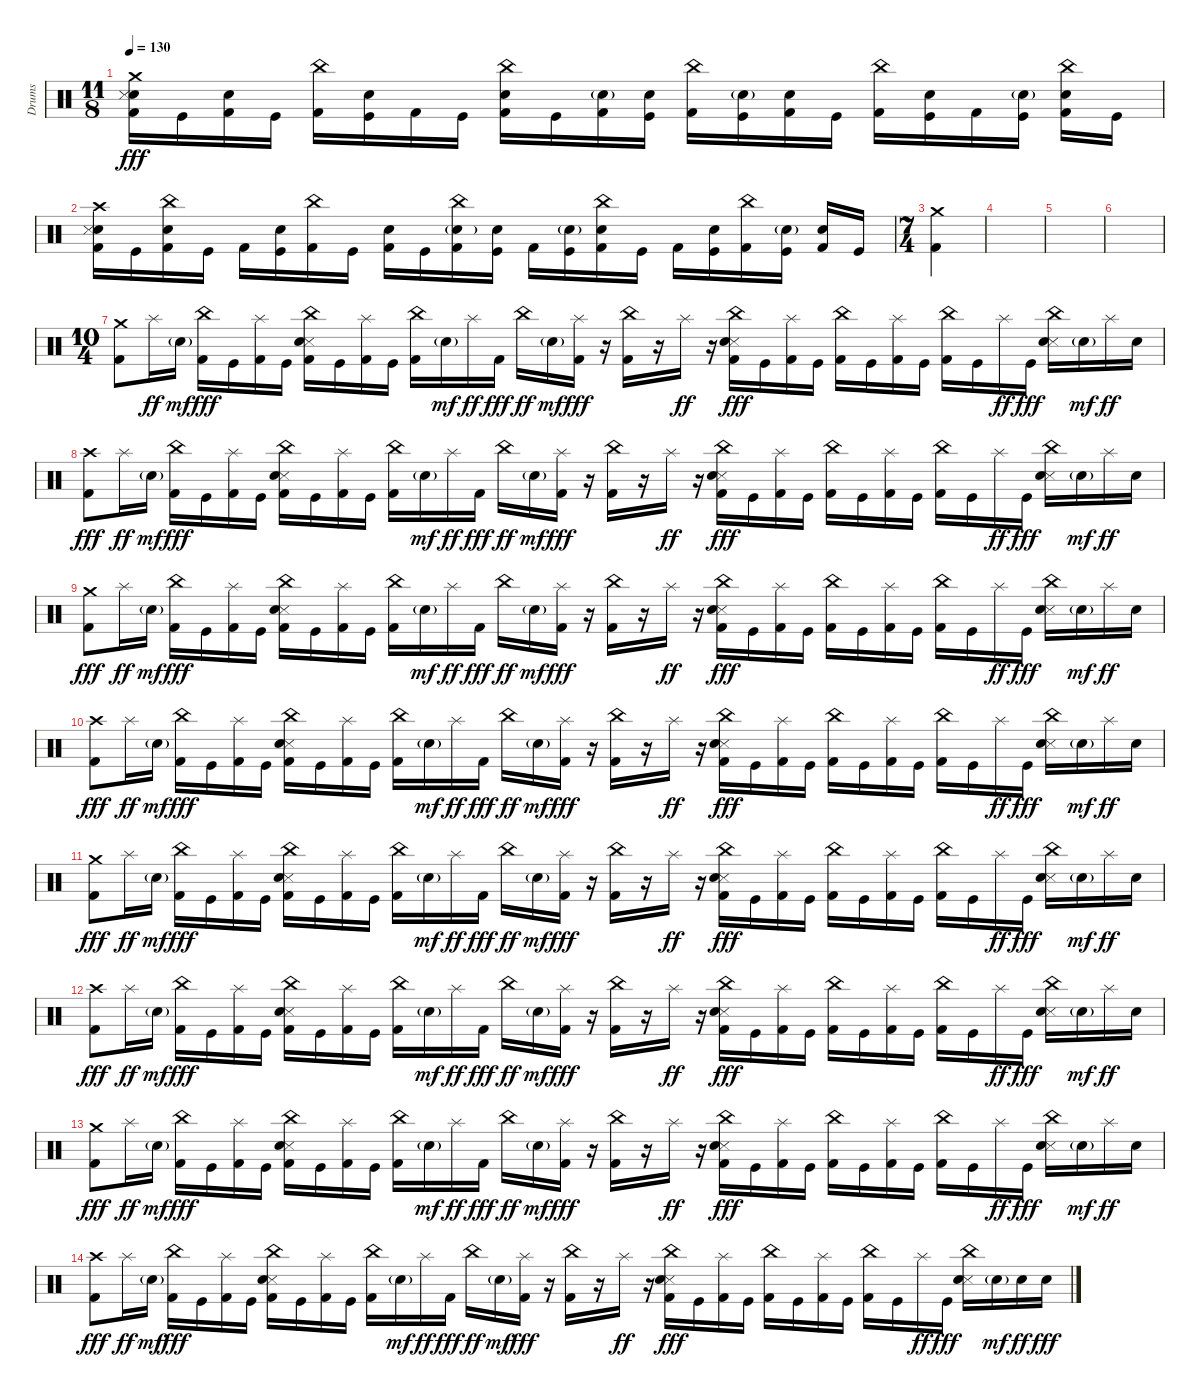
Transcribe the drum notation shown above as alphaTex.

\track ("Drums" "Drums") {instrument percussion}
\staff {score}
\articulation defaults
\ts (11 8)
\tempo 130
\clef neutral
\ks c
("Crash medium (hit)" "Snare (hit) 2" "Snare (side stick) 3" "Kick (hit) 2").16{dy fff} "Kick (hit)".16 ("Snare (hit) 2" "Kick (hit) 2").16 "Kick (hit)".16 ("China (hit)" "Kick (hit) 2").16 ("Snare (hit) 2" "Kick (hit)").16 "Kick (hit) 2".16 "Kick (hit)".16 ("China (hit)" "Snare (hit) 2" "Kick (hit) 2").16 "Kick (hit)".16 ("Snare (hit) 2"{g} "Kick (hit) 2").16 ("Snare (hit) 2" "Kick (hit)").16 ("China (hit)" "Kick (hit) 2").16 ("Snare (hit) 2"{g} "Kick (hit)").16 ("Snare (hit) 2" "Kick (hit) 2").16 "Kick (hit)".16 ("China (hit)" "Kick (hit) 2").16 ("Snare (hit) 2" "Kick (hit)").16 "Kick (hit) 2".16 ("Snare (hit) 2"{g} "Kick (hit)").16 ("China (hit)" "Snare (hit) 2" "Kick (hit) 2").16 "Kick (hit)".16 |
("Crash high (hit)" "Snare (hit) 2" "Snare (side stick) 3" "Kick (hit) 2").16 "Kick (hit)".16 ("China (hit)" "Snare (hit) 2" "Kick (hit) 2").16 "Kick (hit)".16 "Kick (hit) 2".16 ("Snare (hit) 2" "Kick (hit)").16 ("China (hit)" "Kick (hit) 2").16 "Kick (hit)".16 ("Snare (hit) 2" "Kick (hit) 2").16 "Kick (hit)".16 ("China (hit)" "Snare (hit) 2"{g} "Kick (hit) 2").16 ("Snare (hit) 2" "Kick (hit)").16 "Kick (hit) 2".16 ("Snare (hit) 2"{g} "Kick (hit)").16 ("China (hit)" "Snare (hit) 2" "Kick (hit) 2").16 "Kick (hit)".16 "Kick (hit) 2".16 ("Snare (hit) 2" "Kick (hit)").16 ("China (hit)" "Kick (hit) 2").16 ("Snare (hit) 2"{g} "Kick (hit)").16 ("Snare (hit) 2" "Kick (hit) 2").16 "Kick (hit)".16 |
\ts (7 4)
("Crash medium (hit)" "Kick (hit) 2").4 |
|
|
|
\ts (10 4)
("Crash medium (hit)" "Kick (hit) 2").8 "Splash (hit)".16{dy ff} "Snare (hit) 2"{g}.16{dy mf} ("China (hit)" "Kick (hit) 2").16{dy fff} "Kick (hit)".16 ("Splash (hit)" "Kick (hit) 2").16 "Kick (hit)".16 ("China (hit)" "Snare (side stick) 3" "Snare (hit) 2" "Kick (hit) 2").16 "Kick (hit)".16 ("Splash (hit)" "Kick (hit) 2").16 "Kick (hit)".16 ("China (hit)" "Kick (hit) 2").16 "Snare (hit) 2"{g}.16{dy mf} "Splash (hit)".16{dy ff} "Kick (hit) 2".16{dy fff} "China (hit)".16{dy ff} "Snare (hit) 2"{g}.16{dy mf} ("Splash (hit)" "Kick (hit) 2").16{dy fff} r.16 ("China (hit)" "Kick (hit) 2").16 r.16 "Splash (hit)".16{dy ff} r.16 ("China (hit)" "Snare (side stick) 3" "Snare (hit) 2" "Kick (hit) 2").16{dy fff} "Kick (hit)".16 ("Splash (hit)" "Kick (hit) 2").16 "Kick (hit)".16 ("China (hit)" "Kick (hit) 2").16 "Kick (hit)".16 ("Splash (hit)" "Kick (hit) 2").16 "Kick (hit)".16 ("China (hit)" "Kick (hit) 2").16 "Kick (hit)".16 "Splash (hit)".16{dy ff} "Kick (hit)".16{dy fff} ("China (hit)" "Snare (side stick) 3" "Snare (hit) 2").16 "Snare (hit) 2"{g}.16{dy mf} "Splash (hit)".16{dy ff} "Snare (hit) 2".16 |
("Crash high (hit)" "Kick (hit) 2").8{dy fff} "Splash (hit)".16{dy ff} "Snare (hit) 2"{g}.16{dy mf} ("China (hit)" "Kick (hit) 2").16{dy fff} "Kick (hit)".16 ("Splash (hit)" "Kick (hit) 2").16 "Kick (hit)".16 ("China (hit)" "Snare (side stick) 3" "Snare (hit) 2" "Kick (hit) 2").16 "Kick (hit)".16 ("Splash (hit)" "Kick (hit) 2").16 "Kick (hit)".16 ("China (hit)" "Kick (hit) 2").16 "Snare (hit) 2"{g}.16{dy mf} "Splash (hit)".16{dy ff} "Kick (hit) 2".16{dy fff} "China (hit)".16{dy ff} "Snare (hit) 2"{g}.16{dy mf} ("Splash (hit)" "Kick (hit) 2").16{dy fff} r.16 ("China (hit)" "Kick (hit) 2").16 r.16 "Splash (hit)".16{dy ff} r.16 ("China (hit)" "Snare (side stick) 3" "Snare (hit) 2" "Kick (hit) 2").16{dy fff} "Kick (hit)".16 ("Splash (hit)" "Kick (hit) 2").16 "Kick (hit)".16 ("China (hit)" "Kick (hit) 2").16 "Kick (hit)".16 ("Splash (hit)" "Kick (hit) 2").16 "Kick (hit)".16 ("China (hit)" "Kick (hit) 2").16 "Kick (hit)".16 "Splash (hit)".16{dy ff} "Kick (hit)".16{dy fff} ("China (hit)" "Snare (side stick) 3" "Snare (hit) 2").16 "Snare (hit) 2"{g}.16{dy mf} "Splash (hit)".16{dy ff} "Snare (hit) 2".16 |
("Crash medium (hit)" "Kick (hit) 2").8{dy fff} "Splash (hit)".16{dy ff} "Snare (hit) 2"{g}.16{dy mf} ("China (hit)" "Kick (hit) 2").16{dy fff} "Kick (hit)".16 ("Splash (hit)" "Kick (hit) 2").16 "Kick (hit)".16 ("China (hit)" "Snare (side stick) 3" "Snare (hit) 2" "Kick (hit) 2").16 "Kick (hit)".16 ("Splash (hit)" "Kick (hit) 2").16 "Kick (hit)".16 ("China (hit)" "Kick (hit) 2").16 "Snare (hit) 2"{g}.16{dy mf} "Splash (hit)".16{dy ff} "Kick (hit) 2".16{dy fff} "China (hit)".16{dy ff} "Snare (hit) 2"{g}.16{dy mf} ("Splash (hit)" "Kick (hit) 2").16{dy fff} r.16 ("China (hit)" "Kick (hit) 2").16 r.16 "Splash (hit)".16{dy ff} r.16 ("China (hit)" "Snare (side stick) 3" "Snare (hit) 2" "Kick (hit) 2").16{dy fff} "Kick (hit)".16 ("Splash (hit)" "Kick (hit) 2").16 "Kick (hit)".16 ("China (hit)" "Kick (hit) 2").16 "Kick (hit)".16 ("Splash (hit)" "Kick (hit) 2").16 "Kick (hit)".16 ("China (hit)" "Kick (hit) 2").16 "Kick (hit)".16 "Splash (hit)".16{dy ff} "Kick (hit)".16{dy fff} ("China (hit)" "Snare (side stick) 3" "Snare (hit) 2").16 "Snare (hit) 2"{g}.16{dy mf} "Splash (hit)".16{dy ff} "Snare (hit) 2".16 |
("Crash high (hit)" "Kick (hit) 2").8{dy fff} "Splash (hit)".16{dy ff} "Snare (hit) 2"{g}.16{dy mf} ("China (hit)" "Kick (hit) 2").16{dy fff} "Kick (hit)".16 ("Splash (hit)" "Kick (hit) 2").16 "Kick (hit)".16 ("China (hit)" "Snare (side stick) 3" "Snare (hit) 2" "Kick (hit) 2").16 "Kick (hit)".16 ("Splash (hit)" "Kick (hit) 2").16 "Kick (hit)".16 ("China (hit)" "Kick (hit) 2").16 "Snare (hit) 2"{g}.16{dy mf} "Splash (hit)".16{dy ff} "Kick (hit) 2".16{dy fff} "China (hit)".16{dy ff} "Snare (hit) 2"{g}.16{dy mf} ("Splash (hit)" "Kick (hit) 2").16{dy fff} r.16 ("China (hit)" "Kick (hit) 2").16 r.16 "Splash (hit)".16{dy ff} r.16 ("China (hit)" "Snare (side stick) 3" "Snare (hit) 2" "Kick (hit) 2").16{dy fff} "Kick (hit)".16 ("Splash (hit)" "Kick (hit) 2").16 "Kick (hit)".16 ("China (hit)" "Kick (hit) 2").16 "Kick (hit)".16 ("Splash (hit)" "Kick (hit) 2").16 "Kick (hit)".16 ("China (hit)" "Kick (hit) 2").16 "Kick (hit)".16 "Splash (hit)".16{dy ff} "Kick (hit)".16{dy fff} ("China (hit)" "Snare (side stick) 3" "Snare (hit) 2").16 "Snare (hit) 2"{g}.16{dy mf} "Splash (hit)".16{dy ff} "Snare (hit) 2".16 |
("Crash medium (hit)" "Kick (hit) 2").8{dy fff} "Splash (hit)".16{dy ff} "Snare (hit) 2"{g}.16{dy mf} ("China (hit)" "Kick (hit) 2").16{dy fff} "Kick (hit)".16 ("Splash (hit)" "Kick (hit) 2").16 "Kick (hit)".16 ("China (hit)" "Snare (side stick) 3" "Snare (hit) 2" "Kick (hit) 2").16 "Kick (hit)".16 ("Splash (hit)" "Kick (hit) 2").16 "Kick (hit)".16 ("China (hit)" "Kick (hit) 2").16 "Snare (hit) 2"{g}.16{dy mf} "Splash (hit)".16{dy ff} "Kick (hit) 2".16{dy fff} "China (hit)".16{dy ff} "Snare (hit) 2"{g}.16{dy mf} ("Splash (hit)" "Kick (hit) 2").16{dy fff} r.16 ("China (hit)" "Kick (hit) 2").16 r.16 "Splash (hit)".16{dy ff} r.16 ("China (hit)" "Snare (side stick) 3" "Snare (hit) 2" "Kick (hit) 2").16{dy fff} "Kick (hit)".16 ("Splash (hit)" "Kick (hit) 2").16 "Kick (hit)".16 ("China (hit)" "Kick (hit) 2").16 "Kick (hit)".16 ("Splash (hit)" "Kick (hit) 2").16 "Kick (hit)".16 ("China (hit)" "Kick (hit) 2").16 "Kick (hit)".16 "Splash (hit)".16{dy ff} "Kick (hit)".16{dy fff} ("China (hit)" "Snare (side stick) 3" "Snare (hit) 2").16 "Snare (hit) 2"{g}.16{dy mf} "Splash (hit)".16{dy ff} "Snare (hit) 2".16 |
("Crash high (hit)" "Kick (hit) 2").8{dy fff} "Splash (hit)".16{dy ff} "Snare (hit) 2"{g}.16{dy mf} ("China (hit)" "Kick (hit) 2").16{dy fff} "Kick (hit)".16 ("Splash (hit)" "Kick (hit) 2").16 "Kick (hit)".16 ("China (hit)" "Snare (side stick) 3" "Snare (hit) 2" "Kick (hit) 2").16 "Kick (hit)".16 ("Splash (hit)" "Kick (hit) 2").16 "Kick (hit)".16 ("China (hit)" "Kick (hit) 2").16 "Snare (hit) 2"{g}.16{dy mf} "Splash (hit)".16{dy ff} "Kick (hit) 2".16{dy fff} "China (hit)".16{dy ff} "Snare (hit) 2"{g}.16{dy mf} ("Splash (hit)" "Kick (hit) 2").16{dy fff} r.16 ("China (hit)" "Kick (hit) 2").16 r.16 "Splash (hit)".16{dy ff} r.16 ("China (hit)" "Snare (side stick) 3" "Snare (hit) 2" "Kick (hit) 2").16{dy fff} "Kick (hit)".16 ("Splash (hit)" "Kick (hit) 2").16 "Kick (hit)".16 ("China (hit)" "Kick (hit) 2").16 "Kick (hit)".16 ("Splash (hit)" "Kick (hit) 2").16 "Kick (hit)".16 ("China (hit)" "Kick (hit) 2").16 "Kick (hit)".16 "Splash (hit)".16{dy ff} "Kick (hit)".16{dy fff} ("China (hit)" "Snare (side stick) 3" "Snare (hit) 2").16 "Snare (hit) 2"{g}.16{dy mf} "Splash (hit)".16{dy ff} "Snare (hit) 2".16 |
("Crash medium (hit)" "Kick (hit) 2").8{dy fff} "Splash (hit)".16{dy ff} "Snare (hit) 2"{g}.16{dy mf} ("China (hit)" "Kick (hit) 2").16{dy fff} "Kick (hit)".16 ("Splash (hit)" "Kick (hit) 2").16 "Kick (hit)".16 ("China (hit)" "Snare (side stick) 3" "Snare (hit) 2" "Kick (hit) 2").16 "Kick (hit)".16 ("Splash (hit)" "Kick (hit) 2").16 "Kick (hit)".16 ("China (hit)" "Kick (hit) 2").16 "Snare (hit) 2"{g}.16{dy mf} "Splash (hit)".16{dy ff} "Kick (hit) 2".16{dy fff} "China (hit)".16{dy ff} "Snare (hit) 2"{g}.16{dy mf} ("Splash (hit)" "Kick (hit) 2").16{dy fff} r.16 ("China (hit)" "Kick (hit) 2").16 r.16 "Splash (hit)".16{dy ff} r.16 ("China (hit)" "Snare (side stick) 3" "Snare (hit) 2" "Kick (hit) 2").16{dy fff} "Kick (hit)".16 ("Splash (hit)" "Kick (hit) 2").16 "Kick (hit)".16 ("China (hit)" "Kick (hit) 2").16 "Kick (hit)".16 ("Splash (hit)" "Kick (hit) 2").16 "Kick (hit)".16 ("China (hit)" "Kick (hit) 2").16 "Kick (hit)".16 "Splash (hit)".16{dy ff} "Kick (hit)".16{dy fff} ("China (hit)" "Snare (side stick) 3" "Snare (hit) 2").16 "Snare (hit) 2"{g}.16{dy mf} "Splash (hit)".16{dy ff} "Snare (hit) 2".16 |
("Crash high (hit)" "Kick (hit) 2").8{dy fff} "Splash (hit)".16{dy ff} "Snare (hit) 2"{g}.16{dy mf} ("China (hit)" "Kick (hit) 2").16{dy fff} "Kick (hit)".16 ("Splash (hit)" "Kick (hit) 2").16 "Kick (hit)".16 ("China (hit)" "Snare (side stick) 3" "Snare (hit) 2" "Kick (hit) 2").16 "Kick (hit)".16 ("Splash (hit)" "Kick (hit) 2").16 "Kick (hit)".16 ("China (hit)" "Kick (hit) 2").16 "Snare (hit) 2"{g}.16{dy mf} "Splash (hit)".16{dy ff} "Kick (hit) 2".16{dy fff} "China (hit)".16{dy ff} "Snare (hit) 2"{g}.16{dy mf} ("Splash (hit)" "Kick (hit) 2").16{dy fff} r.16 ("China (hit)" "Kick (hit) 2").16 r.16 "Splash (hit)".16{dy ff} r.16 ("China (hit)" "Snare (side stick) 3" "Snare (hit) 2" "Kick (hit) 2").16{dy fff} "Kick (hit)".16 ("Splash (hit)" "Kick (hit) 2").16 "Kick (hit)".16 ("China (hit)" "Kick (hit) 2").16 "Kick (hit)".16 ("Splash (hit)" "Kick (hit) 2").16 "Kick (hit)".16 ("China (hit)" "Kick (hit) 2").16 "Kick (hit)".16 "Splash (hit)".16{dy ff} "Kick (hit)".16{dy fff} ("China (hit)" "Snare (side stick) 3" "Snare (hit) 2").16 "Snare (hit) 2"{g}.16{dy mf} "Snare (hit) 2".16{dy ff} "Snare (hit) 2".16{dy fff}
